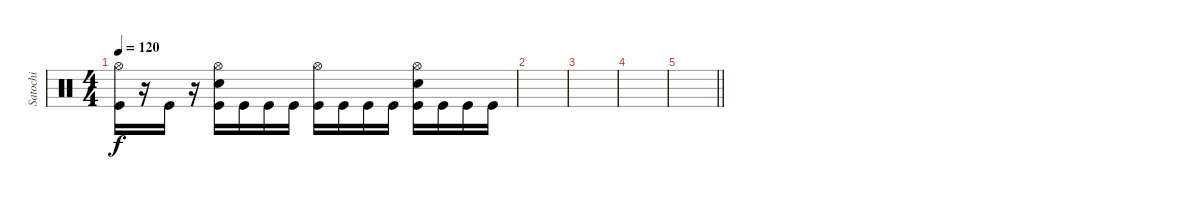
\track ("Satochi" "Satochi") {instrument percussion}
\staff {score}
\articulation defaults
\ts (4 4)
\tempo 120
\clef neutral
\ks c
("Hi-Hat (open)" "Kick (hit)").16{dy f} r.16 "Kick (hit)".16 r.16 ("Hi-Hat (open)" "Electric Snare (hit)" "Kick (hit)").16 "Kick (hit)".16 "Kick (hit)".16 "Kick (hit)".16 ("Hi-Hat (open)" "Kick (hit)").16 "Kick (hit)".16 "Kick (hit)".16 "Kick (hit)".16 ("Hi-Hat (open)" "Electric Snare (hit)" "Kick (hit)").16 "Kick (hit)".16 "Kick (hit)".16 "Kick (hit)".16 |
|
|
|
\barLineRight lightlight
